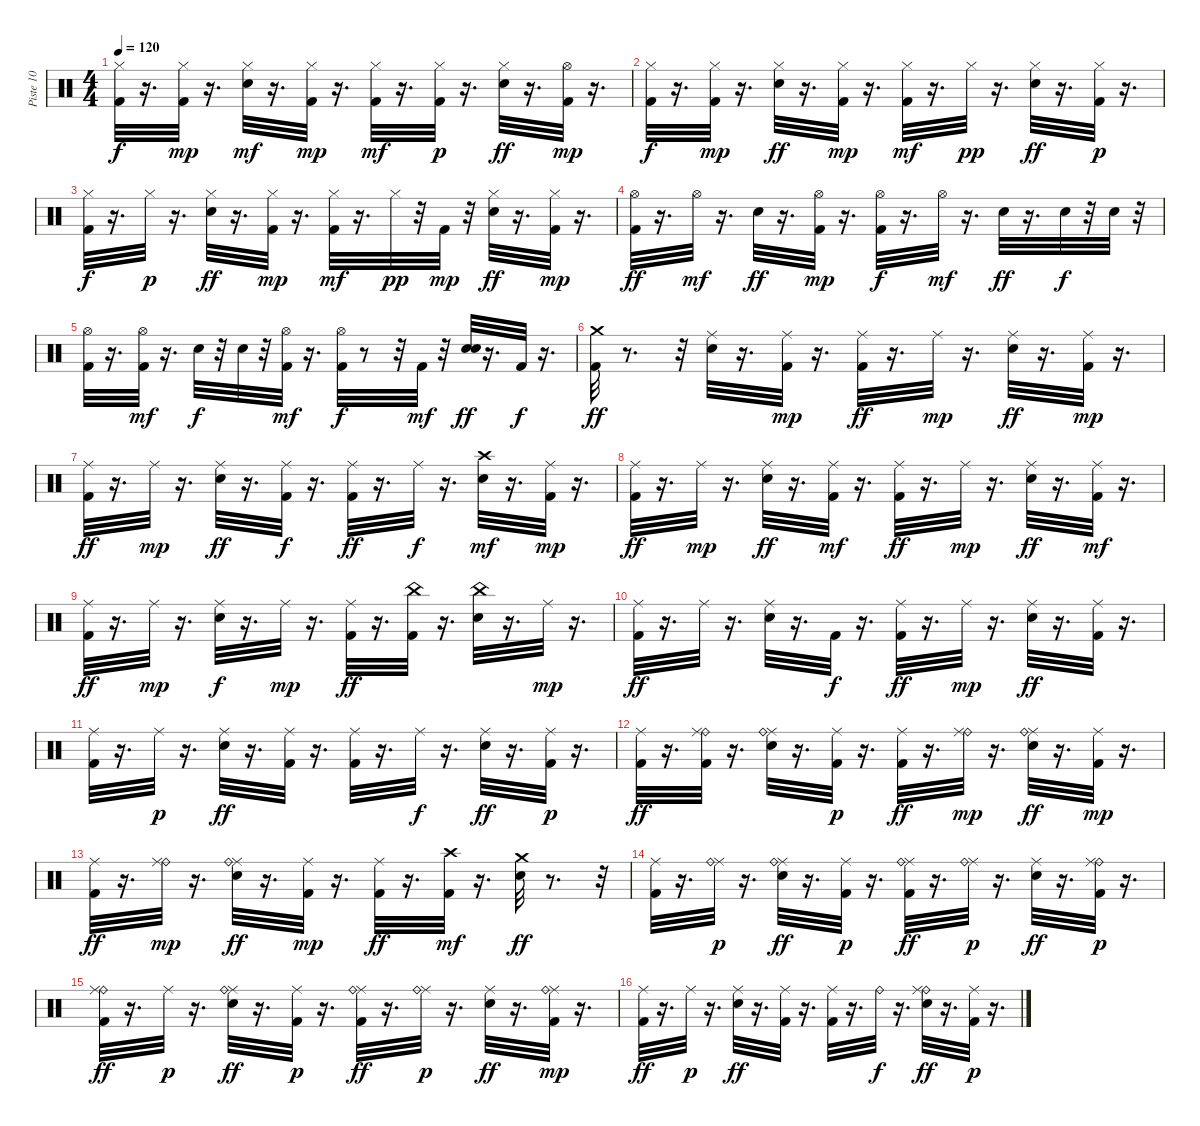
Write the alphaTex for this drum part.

\track ("Piste 10" "Piste 10") {instrument percussion}
\staff {score}
\articulation defaults
\ts (4 4)
\tempo 120
\clef neutral
\ks c
("Hi-Hat (closed)" "Kick (hit) 2").32{dy f} r.16{d} ("Hi-Hat (closed)" "Kick (hit) 2").32{dy mp} r.16{d} ("Hi-Hat (closed)" "Electric Snare (hit)").32{dy mf} r.16{d} ("Hi-Hat (closed)" "Kick (hit) 2").32{dy mp} r.16{d} ("Hi-Hat (closed)" "Kick (hit) 2").32{dy mf} r.16{d} ("Hi-Hat (closed)" "Kick (hit) 2").32{dy p} r.16{d} ("Hi-Hat (closed)" "Electric Snare (hit)").32{dy ff} r.16{d} ("Hi-Hat (open)" "Kick (hit) 2").32{dy mp} r.16{d} |
("Hi-Hat (closed)" "Kick (hit) 2").32{dy f} r.16{d} ("Hi-Hat (closed)" "Kick (hit) 2").32{dy mp} r.16{d} ("Hi-Hat (closed)" "Electric Snare (hit)").32{dy ff} r.16{d} ("Hi-Hat (closed)" "Kick (hit) 2").32{dy mp} r.16{d} ("Hi-Hat (closed)" "Kick (hit) 2").32{dy mf} r.16{d} "Hi-Hat (closed)".32{dy pp} r.16{d} ("Hi-Hat (closed)" "Electric Snare (hit)").32{dy ff} r.16{d} ("Hi-Hat (closed)" "Kick (hit) 2").32{dy p} r.16{d} |
("Hi-Hat (closed)" "Kick (hit) 2").32{dy f} r.16{d} "Hi-Hat (closed)".32{dy p} r.16{d} ("Hi-Hat (closed)" "Electric Snare (hit)").32{dy ff} r.16{d} ("Hi-Hat (closed)" "Kick (hit) 2").32{dy mp} r.16{d} ("Hi-Hat (closed)" "Kick (hit) 2").32{dy mf} r.16{d} "Hi-Hat (closed)".32{dy pp} r.32 "Kick (hit) 2".32{dy mp} r.32 ("Hi-Hat (closed)" "Electric Snare (hit)").32{dy ff} r.16{d} ("Hi-Hat (closed)" "Kick (hit) 2").32{dy mp} r.16{d} |
("Kick (hit) 2" "Hi-Hat (open)").32{dy ff} r.16{d} "Hi-Hat (open)".32{dy mf} r.16{d} "Electric Snare (hit)".32{dy ff} r.16{d} ("Hi-Hat (open)" "Kick (hit) 2").32{dy mp} r.16{d} ("Kick (hit) 2" "Hi-Hat (open)").32{dy f} r.16{d} "Hi-Hat (open)".32{dy mf} r.16{d} "Electric Snare (hit)".32{dy ff} r.16{d} "Electric Snare (hit)".32{dy f} r.32 "Electric Snare (hit)".32 r.32 |
("Hi-Hat (open)" "Kick (hit) 2").32 r.16{d} ("Hi-Hat (open)" "Kick (hit) 2").32{dy mf} r.16{d} "Electric Snare (hit)".32{dy f} r.32 "Electric Snare (hit)".32 r.32 ("Hi-Hat (open)" "Kick (hit) 2").32{dy mf} r.16{d} ("Hi-Hat (open)" "Kick (hit) 2").32{dy f} r.8 r.32 "Kick (hit) 2".32{dy mf} r.32 ("Electric Snare (hit)" "Electric Snare (hit)").32{dy ff} r.16{d} "Kick (hit) 2".32{dy f} r.16{d} |
("Crash medium (hit)" "Kick (hit) 2").32{dy ff} r.8{d} r.32 ("Electric Snare (hit)" "Ride (middle)").32 r.16{d} ("Kick (hit) 2" "Ride (middle)").32{dy mp} r.16{d} ("Ride (middle)" "Kick (hit) 2").32{dy ff} r.16{d} "Ride (middle)".32{dy mp} r.16{d} ("Electric Snare (hit)" "Ride (middle)").32{dy ff} r.16{d} ("Ride (middle)" "Kick (hit) 2").32{dy mp} r.16{d} |
("Ride (middle)" "Kick (hit) 2").32{dy ff} r.16{d} "Ride (middle)".32{dy mp} r.16{d} ("Ride (middle)" "Electric Snare (hit)").32{dy ff} r.16{d} ("Ride (middle)" "Kick (hit) 2").32{dy f} r.16{d} ("Ride (middle)" "Kick (hit) 2").32{dy ff} r.16{d} "Ride (middle)".32{dy f} r.16{d} ("Electric Snare (hit)" "Crash high (hit)").32{dy mf} r.16{d} ("Ride (middle)" "Kick (hit) 2").32{dy mp} r.16{d} |
("Ride (middle)" "Kick (hit) 2").32{dy ff} r.16{d} "Ride (middle)".32{dy mp} r.16{d} ("Electric Snare (hit)" "Ride (middle)").32{dy ff} r.16{d} ("Ride (middle)" "Kick (hit) 2").32{dy mf} r.16{d} ("Ride (middle)" "Kick (hit) 2").32{dy ff} r.16{d} "Ride (middle)".32{dy mp} r.16{d} ("Ride (middle)" "Electric Snare (hit)").32{dy ff} r.16{d} ("Ride (middle)" "Kick (hit) 2").32{dy mf} r.16{d} |
("Ride (middle)" "Kick (hit) 2").32{dy ff} r.16{d} "Ride (middle)".32{dy mp} r.16{d} ("Electric Snare (hit)" "Ride (middle)").32{dy f} r.16{d} "Ride (middle)".32{dy mp} r.16{d} ("Ride (middle)" "Kick (hit) 2").32{dy ff} r.16{d} ("China (hit)" "Kick (hit) 2").32 r.16{d} ("Electric Snare (hit)" "China (hit)").32 r.16{d} "Ride (middle)".32{dy mp} r.16{d} |
("Ride (middle)" "Kick (hit) 2").32{dy ff} r.16{d} "Ride (middle)".32 r.16{d} ("Ride (middle)" "Electric Snare (hit)").32 r.16{d} "Kick (hit) 2".32{dy f} r.16{d} ("Ride (middle)" "Kick (hit) 2").32{dy ff} r.16{d} "Ride (middle)".32{dy mp} r.16{d} ("Ride (middle)" "Electric Snare (hit)").32{dy ff} r.16{d} ("Ride (middle)" "Kick (hit) 2").32 r.16{d} |
("Ride (middle)" "Kick (hit) 2").32 r.16{d} "Ride (middle)".32{dy p} r.16{d} ("Ride (middle)" "Electric Snare (hit)").32{dy ff} r.16{d} ("Ride (middle)" "Kick (hit) 2").32 r.16{d} ("Ride (middle)" "Kick (hit) 2").32 r.16{d} "Ride (middle)".32{dy f} r.16{d} ("Ride (middle)" "Electric Snare (hit)").32{dy ff} r.16{d} ("Ride (middle)" "Kick (hit) 2").32{dy p} r.16{d} |
("Ride (middle)" "Kick (hit) 2").32{dy ff} r.16{d} ("Ride (bell)" "Ride (middle)" "Kick (hit) 2").32 r.16{d} ("Ride (middle)" "Ride (bell)" "Electric Snare (hit)").32 r.16{d} ("Ride (middle)" "Kick (hit) 2").32{dy p} r.16{d} ("Ride (middle)" "Kick (hit) 2").32{dy ff} r.16{d} ("Ride (bell)" "Ride (middle)").32{dy mp} r.16{d} ("Ride (middle)" "Ride (bell)" "Electric Snare (hit)").32{dy ff} r.16{d} ("Ride (middle)" "Kick (hit) 2").32{dy mp} r.16{d} |
("Ride (middle)" "Kick (hit) 2").32{dy ff} r.16{d} ("Ride (bell)" "Ride (middle)").32{dy mp} r.16{d} ("Ride (middle)" "Electric Snare (hit)" "Ride (bell)").32{dy ff} r.16{d} ("Ride (middle)" "Kick (hit) 2").32{dy mp} r.16{d} ("Ride (middle)" "Kick (hit) 2").32{dy ff} r.16{d} ("Crash high (hit)" "Kick (hit) 2").32{dy mf} r.16{d} ("Crash medium (hit)" "Electric Snare (hit)").32{dy ff} r.8{d} r.32 |
("Ride (middle)" "Kick (hit) 2").32 r.16{d} ("Ride (middle)" "Ride (bell)").32{dy p} r.16{d} ("Ride (middle)" "Electric Snare (hit)" "Ride (bell)").32{dy ff} r.16{d} ("Kick (hit) 2" "Ride (middle)").32{dy p} r.16{d} ("Ride (middle)" "Ride (bell)" "Kick (hit) 2").32{dy ff} r.16{d} ("Ride (middle)" "Ride (bell)").32{dy p} r.16{d} ("Ride (middle)" "Electric Snare (hit)").32{dy ff} r.16{d} ("Ride (bell)" "Ride (middle)" "Kick (hit) 2").32{dy p} r.16{d} |
("Ride (bell)" "Ride (middle)" "Kick (hit) 2").32{dy ff} r.16{d} "Ride (middle)".32{dy p} r.16{d} ("Ride (middle)" "Electric Snare (hit)" "Ride (bell)").32{dy ff} r.16{d} ("Ride (middle)" "Kick (hit) 2").32{dy p} r.16{d} ("Ride (middle)" "Ride (bell)" "Kick (hit) 2").32{dy ff} r.16{d} ("Ride (middle)" "Ride (bell)").32{dy p} r.16{d} ("Ride (middle)" "Electric Snare (hit)").32{dy ff} r.16{d} ("Ride (middle)" "Ride (bell)" "Kick (hit) 2").32{dy mp} r.16{d} |
("Ride (middle)" "Kick (hit) 2").32{dy ff} r.16{d} "Ride (middle)".32{dy p} r.16{d} ("Ride (middle)" "Electric Snare (hit)").32{dy ff} r.16{d} ("Ride (middle)" "Kick (hit) 2").32 r.16{d} ("Ride (middle)" "Kick (hit) 2").32 r.16{d} "Ride (bell)".32{dy f} r.16{d} ("Ride (bell)" "Ride (middle)" "Electric Snare (hit)").32{dy ff} r.16{d} ("Ride (middle)" "Kick (hit) 2").32{dy p} r.16{d}
